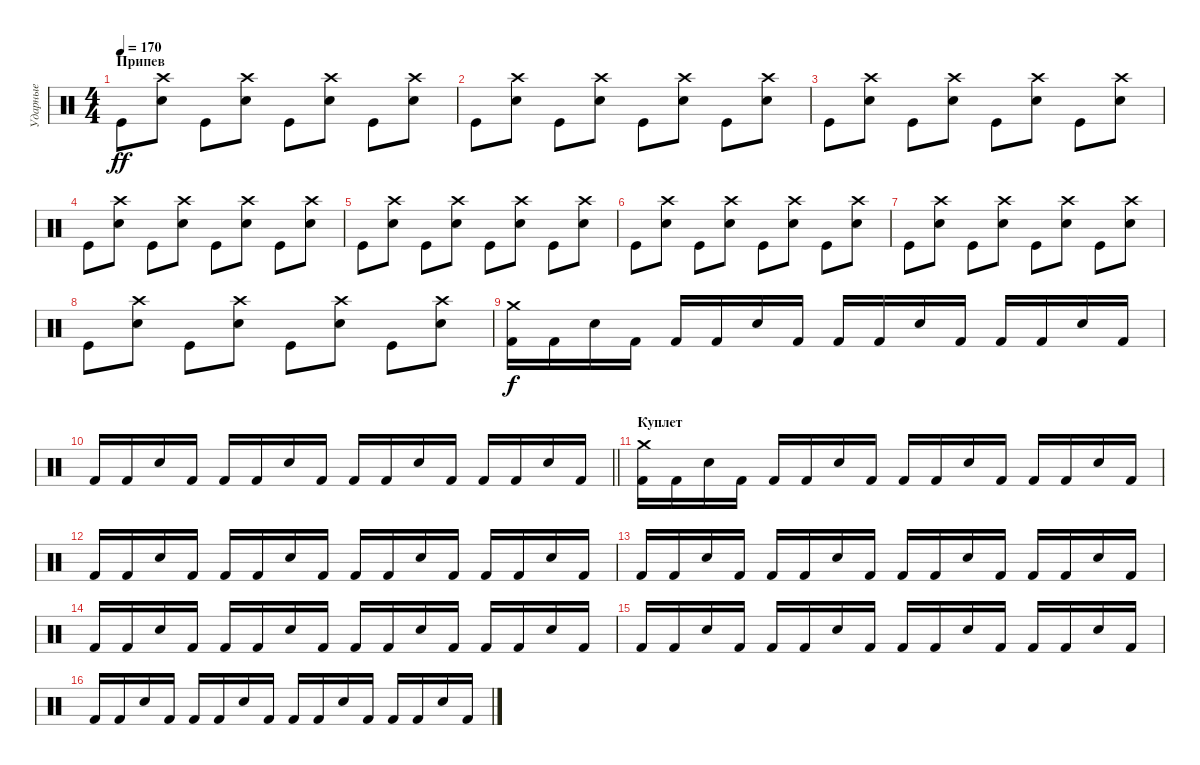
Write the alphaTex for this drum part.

\track ("Ударные" "Ударные") {instrument percussion}
\staff {score}
\articulation defaults
\ts (4 4)
\section ("" "Припев")
\tempo 170
\clef neutral
\ks c "Kick (hit)".8{dy ff}
("Crash high (hit)" "Electric Snare (hit)").8 "Kick (hit)".8 ("Crash high (hit)" "Electric Snare (hit)").8 "Kick (hit)".8 ("Crash high (hit)" "Electric Snare (hit)").8 "Kick (hit)".8 ("Crash high (hit)" "Electric Snare (hit)").8 |
"Kick (hit)".8 ("Crash high (hit)" "Electric Snare (hit)").8 "Kick (hit)".8 ("Crash high (hit)" "Electric Snare (hit)").8 "Kick (hit)".8 ("Crash high (hit)" "Electric Snare (hit)").8 "Kick (hit)".8 ("Crash high (hit)" "Electric Snare (hit)").8 |
"Kick (hit)".8 ("Crash high (hit)" "Electric Snare (hit)").8 "Kick (hit)".8 ("Crash high (hit)" "Electric Snare (hit)").8 "Kick (hit)".8 ("Crash high (hit)" "Electric Snare (hit)").8 "Kick (hit)".8 ("Crash high (hit)" "Electric Snare (hit)").8 |
"Kick (hit)".8 ("Crash high (hit)" "Electric Snare (hit)").8 "Kick (hit)".8 ("Crash high (hit)" "Electric Snare (hit)").8 "Kick (hit)".8 ("Crash high (hit)" "Electric Snare (hit)").8 "Kick (hit)".8 ("Crash high (hit)" "Electric Snare (hit)").8 |
"Kick (hit)".8 ("Crash high (hit)" "Electric Snare (hit)").8 "Kick (hit)".8 ("Crash high (hit)" "Electric Snare (hit)").8 "Kick (hit)".8 ("Crash high (hit)" "Electric Snare (hit)").8 "Kick (hit)".8 ("Crash high (hit)" "Electric Snare (hit)").8 |
"Kick (hit)".8 ("Crash high (hit)" "Electric Snare (hit)").8 "Kick (hit)".8 ("Crash high (hit)" "Electric Snare (hit)").8 "Kick (hit)".8 ("Crash high (hit)" "Electric Snare (hit)").8 "Kick (hit)".8 ("Crash high (hit)" "Electric Snare (hit)").8 |
"Kick (hit)".8 ("Crash high (hit)" "Electric Snare (hit)").8 "Kick (hit)".8 ("Crash high (hit)" "Electric Snare (hit)").8 "Kick (hit)".8 ("Crash high (hit)" "Electric Snare (hit)").8 "Kick (hit)".8 ("Crash high (hit)" "Electric Snare (hit)").8 |
"Kick (hit)".8 ("Crash high (hit)" "Electric Snare (hit)").8 "Kick (hit)".8 ("Crash high (hit)" "Electric Snare (hit)").8 "Kick (hit)".8 ("Crash high (hit)" "Electric Snare (hit)").8 "Kick (hit)".8 ("Crash high (hit)" "Electric Snare (hit)").8 |
("Crash medium (hit)" "Kick (hit) 2").16{dy f} "Kick (hit) 2".16 "Snare (hit) 2".16 "Kick (hit) 2".16 "Kick (hit) 2".16 "Kick (hit) 2".16 "Snare (hit) 2".16 "Kick (hit) 2".16 "Kick (hit) 2".16 "Kick (hit) 2".16 "Snare (hit) 2".16 "Kick (hit) 2".16 "Kick (hit) 2".16 "Kick (hit) 2".16 "Snare (hit) 2".16 "Kick (hit) 2".16 |
\barLineRight lightlight "Kick (hit) 2".16 "Kick (hit) 2".16 "Snare (hit) 2".16 "Kick (hit) 2".16 "Kick (hit) 2".16 "Kick (hit) 2".16 "Snare (hit) 2".16 "Kick (hit) 2".16 "Kick (hit) 2".16 "Kick (hit) 2".16 "Snare (hit) 2".16 "Kick (hit) 2".16 "Kick (hit) 2".16 "Kick (hit) 2".16 "Snare (hit) 2".16 "Kick (hit) 2".16
|
\section ("" "Куплет")
("Crash medium (hit)" "Kick (hit) 2").16 "Kick (hit) 2".16 "Snare (hit) 2".16 "Kick (hit) 2".16 "Kick (hit) 2".16 "Kick (hit) 2".16 "Snare (hit) 2".16 "Kick (hit) 2".16 "Kick (hit) 2".16 "Kick (hit) 2".16 "Snare (hit) 2".16 "Kick (hit) 2".16 "Kick (hit) 2".16 "Kick (hit) 2".16 "Snare (hit) 2".16 "Kick (hit) 2".16 |
"Kick (hit) 2".16 "Kick (hit) 2".16 "Snare (hit) 2".16 "Kick (hit) 2".16 "Kick (hit) 2".16 "Kick (hit) 2".16 "Snare (hit) 2".16 "Kick (hit) 2".16 "Kick (hit) 2".16 "Kick (hit) 2".16 "Snare (hit) 2".16 "Kick (hit) 2".16 "Kick (hit) 2".16 "Kick (hit) 2".16 "Snare (hit) 2".16 "Kick (hit) 2".16 |
"Kick (hit) 2".16 "Kick (hit) 2".16 "Snare (hit) 2".16 "Kick (hit) 2".16 "Kick (hit) 2".16 "Kick (hit) 2".16 "Snare (hit) 2".16 "Kick (hit) 2".16 "Kick (hit) 2".16 "Kick (hit) 2".16 "Snare (hit) 2".16 "Kick (hit) 2".16 "Kick (hit) 2".16 "Kick (hit) 2".16 "Snare (hit) 2".16 "Kick (hit) 2".16 |
"Kick (hit) 2".16 "Kick (hit) 2".16 "Snare (hit) 2".16 "Kick (hit) 2".16 "Kick (hit) 2".16 "Kick (hit) 2".16 "Snare (hit) 2".16 "Kick (hit) 2".16 "Kick (hit) 2".16 "Kick (hit) 2".16 "Snare (hit) 2".16 "Kick (hit) 2".16 "Kick (hit) 2".16 "Kick (hit) 2".16 "Snare (hit) 2".16 "Kick (hit) 2".16 |
"Kick (hit) 2".16 "Kick (hit) 2".16 "Snare (hit) 2".16 "Kick (hit) 2".16 "Kick (hit) 2".16 "Kick (hit) 2".16 "Snare (hit) 2".16 "Kick (hit) 2".16 "Kick (hit) 2".16 "Kick (hit) 2".16 "Snare (hit) 2".16 "Kick (hit) 2".16 "Kick (hit) 2".16 "Kick (hit) 2".16 "Snare (hit) 2".16 "Kick (hit) 2".16 |
"Kick (hit) 2".16 "Kick (hit) 2".16 "Snare (hit) 2".16 "Kick (hit) 2".16 "Kick (hit) 2".16 "Kick (hit) 2".16 "Snare (hit) 2".16 "Kick (hit) 2".16 "Kick (hit) 2".16 "Kick (hit) 2".16 "Snare (hit) 2".16 "Kick (hit) 2".16 "Kick (hit) 2".16 "Kick (hit) 2".16 "Snare (hit) 2".16 "Kick (hit) 2".16
